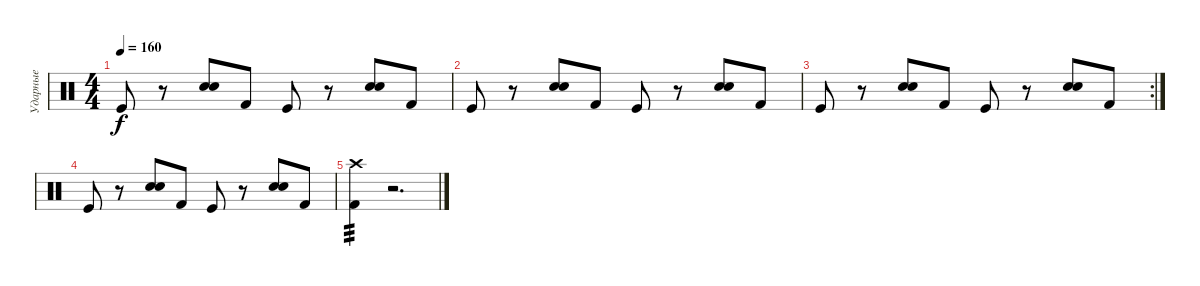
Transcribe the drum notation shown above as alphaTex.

\track ("Ударные" "Ударные") {instrument percussion}
\staff {score}
\articulation defaults
\ts (4 4)
\tempo 160
\clef neutral
\ks c "Kick (hit)".8{dy f}
r.8 ("Electric Snare (hit)" "Snare (hit) 2").8 "Kick (hit) 2".8 "Kick (hit)".8 r.8 ("Electric Snare (hit)" "Snare (hit) 2").8 "Kick (hit) 2".8 |
"Kick (hit)".8 r.8 ("Electric Snare (hit)" "Snare (hit) 2").8 "Kick (hit) 2".8 "Kick (hit)".8 r.8 ("Electric Snare (hit)" "Snare (hit) 2").8 "Kick (hit) 2".8 |
\rc 2 "Kick (hit)".8
r.8 ("Electric Snare (hit)" "Snare (hit) 2").8 "Kick (hit) 2".8 "Kick (hit)".8 r.8 ("Electric Snare (hit)" "Snare (hit) 2").8 "Kick (hit) 2".8 |
"Kick (hit)".8 r.8 ("Electric Snare (hit)" "Snare (hit) 2").8 "Kick (hit) 2".8 "Kick (hit)".8 r.8 ("Electric Snare (hit)" "Snare (hit) 2").8 "Kick (hit) 2".8 |
("Crash high (hit)" "Kick (hit) 2").4{tp 3} r.2{d}
